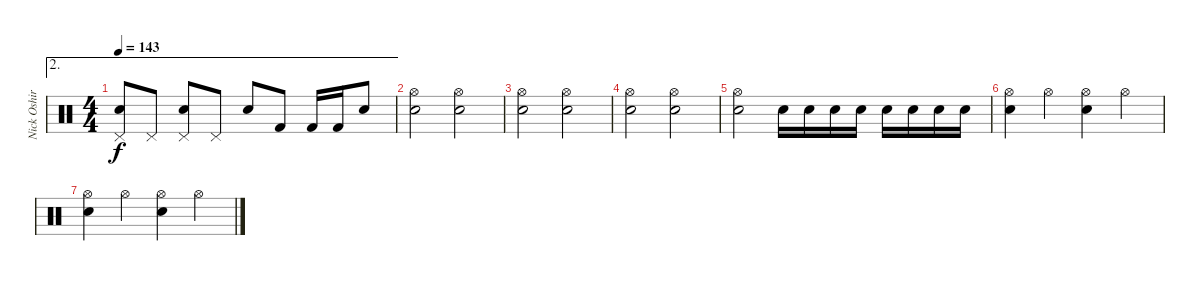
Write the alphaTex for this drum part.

\track ("Nick Oshiro" "Nick Oshir") {instrument percussion}
\staff {score}
\articulation defaults
\ae 2
\ts (4 4)
\tempo 143
\clef neutral
\ks c
("Pedal Hi-Hat (hit)" "Snare (hit) 2").8{dy f} "Pedal Hi-Hat (hit)".8 ("Pedal Hi-Hat (hit)" "Snare (hit) 2").8 "Pedal Hi-Hat (hit)".8 "Snare (hit) 2".8 "Kick (hit) 2".8 "Kick (hit) 2".16 "Kick (hit) 2".16 "Snare (hit) 2".8 |
("Hi-Hat (open)" "Snare (hit) 2").2 ("Hi-Hat (open)" "Snare (hit) 2").2 |
("Hi-Hat (open)" "Snare (hit) 2").2 ("Hi-Hat (open)" "Snare (hit) 2").2 |
("Hi-Hat (open)" "Snare (hit) 2").2 ("Hi-Hat (open)" "Snare (hit) 2").2{volume 4} |
("Hi-Hat (open)" "Snare (hit) 2").2 "Electric Snare (hit)".16 "Electric Snare (hit)".16 "Electric Snare (hit)".16 "Electric Snare (hit)".16 "Electric Snare (hit)".16 "Electric Snare (hit)".16 "Electric Snare (hit)".16 "Electric Snare (hit)".16 |
("Hi-Hat (open)" "Snare (hit) 2").4 "Hi-Hat (open)".4 ("Hi-Hat (open)" "Snare (hit) 2").4 "Hi-Hat (open)".4 |
("Hi-Hat (open)" "Snare (hit) 2").4 "Hi-Hat (open)".4 ("Hi-Hat (open)" "Snare (hit) 2").4 "Hi-Hat (open)".4
